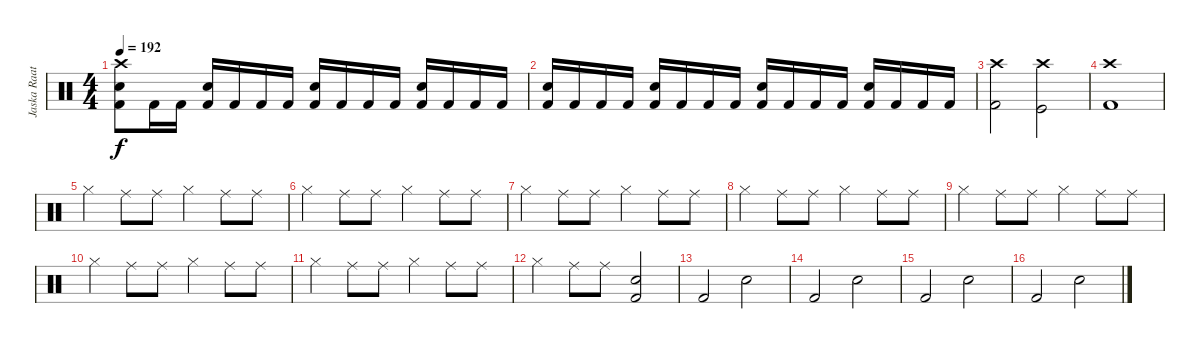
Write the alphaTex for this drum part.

\track ("Jaska Raatikainen" "Jaska Raat") {instrument percussion}
\staff {score}
\articulation defaults
\ts (4 4)
\tempo 192
\clef neutral
\ks c
("Crash high (hit)" "Snare (hit) 2" "Kick (hit) 2").8{dy f} "Kick (hit) 2".16 "Kick (hit) 2".16 ("Snare (hit) 2" "Kick (hit) 2").16 "Kick (hit) 2".16 "Kick (hit) 2".16 "Kick (hit) 2".16 ("Snare (hit) 2" "Kick (hit) 2").16 "Kick (hit) 2".16 "Kick (hit) 2".16 "Kick (hit) 2".16 ("Snare (hit) 2" "Kick (hit) 2").16 "Kick (hit) 2".16 "Kick (hit) 2".16 "Kick (hit) 2".16 |
("Snare (hit) 2" "Kick (hit) 2").16 "Kick (hit) 2".16 "Kick (hit) 2".16 "Kick (hit) 2".16 ("Snare (hit) 2" "Kick (hit) 2").16 "Kick (hit) 2".16 "Kick (hit) 2".16 "Kick (hit) 2".16 ("Snare (hit) 2" "Kick (hit) 2").16 "Kick (hit) 2".16 "Kick (hit) 2".16 "Kick (hit) 2".16 ("Snare (hit) 2" "Kick (hit) 2").16 "Kick (hit) 2".16 "Kick (hit) 2".16 "Kick (hit) 2".16 |
("Crash high (hit)" "Kick (hit) 2").2 ("Crash high (hit)" "Kick (hit)").2 |
("Crash high (hit)" "Kick (hit) 2").1 |
"Hi-Hat (closed)".4 "Ride (middle)".8 "Ride (middle)".8 "Hi-Hat (closed)".4 "Ride (middle)".8 "Ride (middle)".8 |
"Hi-Hat (closed)".4 "Ride (middle)".8 "Ride (middle)".8 "Hi-Hat (closed)".4 "Ride (middle)".8 "Ride (middle)".8 |
"Hi-Hat (closed)".4 "Ride (middle)".8 "Ride (middle)".8 "Hi-Hat (closed)".4 "Ride (middle)".8 "Ride (middle)".8 |
"Hi-Hat (closed)".4 "Ride (middle)".8 "Ride (middle)".8 "Hi-Hat (closed)".4 "Ride (middle)".8 "Ride (middle)".8 |
"Hi-Hat (closed)".4 "Ride (middle)".8 "Ride (middle)".8 "Hi-Hat (closed)".4 "Ride (middle)".8 "Ride (middle)".8 |
"Hi-Hat (closed)".4 "Ride (middle)".8 "Ride (middle)".8 "Hi-Hat (closed)".4 "Ride (middle)".8 "Ride (middle)".8 |
"Hi-Hat (closed)".4 "Ride (middle)".8 "Ride (middle)".8 "Hi-Hat (closed)".4 "Ride (middle)".8 "Ride (middle)".8 |
"Hi-Hat (closed)".4 "Ride (middle)".8 "Ride (middle)".8 ("Snare (hit) 2" "Kick (hit) 2").2 |
"Kick (hit) 2".2 "Snare (hit) 2".2 |
"Kick (hit) 2".2 "Snare (hit) 2".2 |
"Kick (hit) 2".2 "Snare (hit) 2".2 |
"Kick (hit) 2".2 "Snare (hit) 2".2
